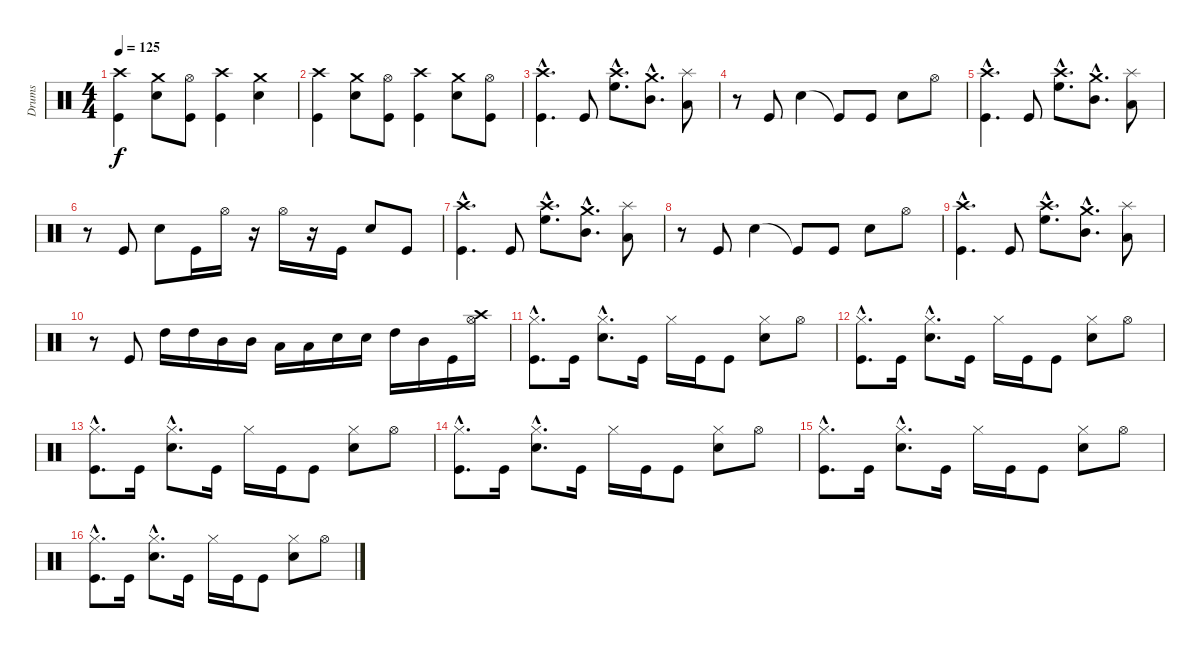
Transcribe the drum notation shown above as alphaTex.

\track ("Drums" "Drums") {instrument percussion}
\staff {score}
\articulation defaults
\ts (4 4)
\tempo 125
\clef neutral
\ks c
("Crash high (hit)" "Kick (hit)").4{dy f} ("Crash medium (hit)" "Electric Snare (hit)").8 ("Hi-Hat (open)" "Kick (hit)").8 ("Crash high (hit)" "Kick (hit)").4 ("Crash medium (hit)" "Electric Snare (hit)").4 |
("Crash high (hit)" "Kick (hit)").4 ("Crash medium (hit)" "Electric Snare (hit)").8 ("Hi-Hat (open)" "Kick (hit)").8 ("Crash high (hit)" "Kick (hit)").4 ("Crash medium (hit)" "Electric Snare (hit)").8 ("Hi-Hat (open)" "Kick (hit)").8 |
("Crash high (hit)"{hac} "Kick (hit)"{hac}).4{d} "Kick (hit)".8 ("Crash high (hit)"{hac} "High Floor Tom (hit)"{hac}).8{d} ("Crash medium (hit)"{hac} "Mid Tom (hit)"{hac}).8{d} ("Splash (hit)" "Low Tom (hit)").8 |
r.8 "Kick (hit)".8 "Electric Snare (hit)".4 "Kick (hit)"{t}.8 "Kick (hit)".8 "Electric Snare (hit)".8 "Hi-Hat (open)".8 |
("Crash high (hit)"{hac} "Kick (hit)"{hac}).4{d} "Kick (hit)".8 ("Crash high (hit)"{hac} "High Floor Tom (hit)"{hac}).8{d} ("Crash medium (hit)"{hac} "Mid Tom (hit)"{hac}).8{d} ("Splash (hit)" "Low Tom (hit)").8 |
r.8 "Kick (hit)".8 "Electric Snare (hit)".8 "Kick (hit)".16 "Hi-Hat (open)".16 r.16 "Hi-Hat (open)".16 r.16 "Kick (hit)".16 "Electric Snare (hit)".8 "Kick (hit)".8 |
("Crash high (hit)"{hac} "Kick (hit)"{hac}).4{d} "Kick (hit)".8 ("Crash high (hit)"{hac} "High Floor Tom (hit)"{hac}).8{d} ("Crash medium (hit)"{hac} "Mid Tom (hit)"{hac}).8{d} ("Splash (hit)" "Low Tom (hit)").8 |
r.8 "Kick (hit)".8 "Electric Snare (hit)".4 "Kick (hit)"{t}.8 "Kick (hit)".8 "Electric Snare (hit)".8 "Hi-Hat (open)".8 |
("Crash high (hit)"{hac} "Kick (hit)"{hac}).4{d} "Kick (hit)".8 ("Crash high (hit)"{hac} "High Floor Tom (hit)"{hac}).8{d} ("Crash medium (hit)"{hac} "Mid Tom (hit)"{hac}).8{d} ("Splash (hit)" "Low Tom (hit)").8 |
r.8 "Kick (hit)".8 "High Tom (hit)".16 "High Tom (hit)".16 "Mid Tom (hit)".16 "Mid Tom (hit)".16 "Low Tom (hit)".16 "Low Tom (hit)".16 "Electric Snare (hit)".16 "Electric Snare (hit)".16 "High Tom (hit)".16 "Mid Tom (hit)".16 "Kick (hit)".16 ("Crash high (hit)" "Hi-Hat (open)").16 |
("Hi-Hat (closed)"{hac} "Kick (hit)"{hac}).8{d} "Kick (hit)".16 ("Hi-Hat (closed)"{hac} "Electric Snare (hit)"{hac}).8{d} "Kick (hit)".16 "Hi-Hat (closed)".16 "Kick (hit)".16 "Kick (hit)".8 ("Hi-Hat (closed)" "Electric Snare (hit)").8 "Hi-Hat (open)".8 |
("Hi-Hat (closed)"{hac} "Kick (hit)"{hac}).8{d} "Kick (hit)".16 ("Hi-Hat (closed)"{hac} "Electric Snare (hit)"{hac}).8{d} "Kick (hit)".16 "Hi-Hat (closed)".16 "Kick (hit)".16 "Kick (hit)".8 ("Hi-Hat (closed)" "Electric Snare (hit)").8 "Hi-Hat (open)".8 |
("Hi-Hat (closed)"{hac} "Kick (hit)"{hac}).8{d} "Kick (hit)".16 ("Hi-Hat (closed)"{hac} "Electric Snare (hit)"{hac}).8{d} "Kick (hit)".16 "Hi-Hat (closed)".16 "Kick (hit)".16 "Kick (hit)".8 ("Hi-Hat (closed)" "Electric Snare (hit)").8 "Hi-Hat (open)".8 |
("Hi-Hat (closed)"{hac} "Kick (hit)"{hac}).8{d} "Kick (hit)".16 ("Hi-Hat (closed)"{hac} "Electric Snare (hit)"{hac}).8{d} "Kick (hit)".16 "Hi-Hat (closed)".16 "Kick (hit)".16 "Kick (hit)".8 ("Hi-Hat (closed)" "Electric Snare (hit)").8 "Hi-Hat (open)".8 |
("Hi-Hat (closed)"{hac} "Kick (hit)"{hac}).8{d} "Kick (hit)".16 ("Hi-Hat (closed)"{hac} "Electric Snare (hit)"{hac}).8{d} "Kick (hit)".16 "Hi-Hat (closed)".16 "Kick (hit)".16 "Kick (hit)".8 ("Hi-Hat (closed)" "Electric Snare (hit)").8 "Hi-Hat (open)".8 |
("Hi-Hat (closed)"{hac} "Kick (hit)"{hac}).8{d} "Kick (hit)".16 ("Hi-Hat (closed)"{hac} "Electric Snare (hit)"{hac}).8{d} "Kick (hit)".16 "Hi-Hat (closed)".16 "Kick (hit)".16 "Kick (hit)".8 ("Hi-Hat (closed)" "Electric Snare (hit)").8 "Hi-Hat (open)".8
